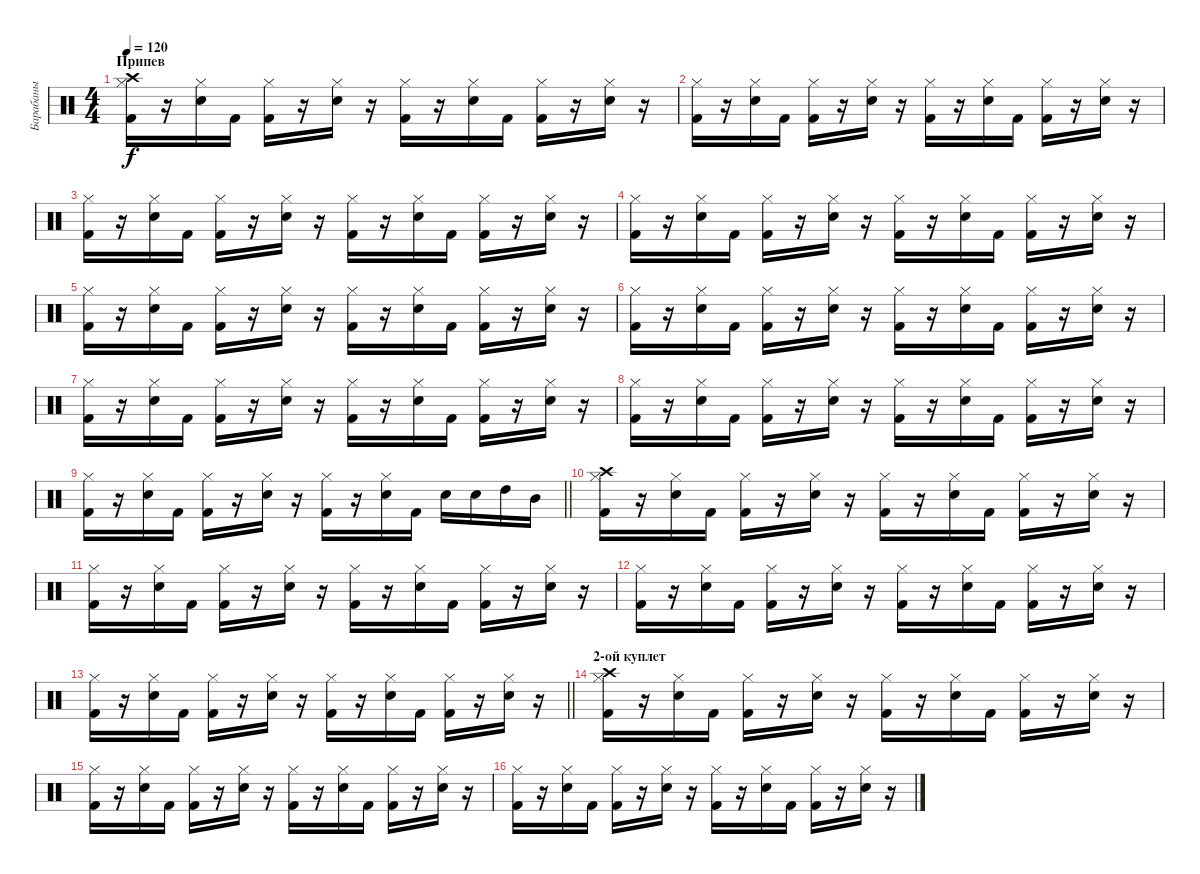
\track ("Барабаны" "Барабаны") {instrument percussion}
\staff {score}
\articulation defaults
\ts (4 4)
\section ("" "Припев")
\tempo 120
\clef neutral
\ks c
("Hi-Hat (closed)" "Kick (hit) 2" "Crash high (hit)").16{dy f} r.16 ("Hi-Hat (closed)" "Electric Snare (hit)").16 "Kick (hit) 2".16 ("Hi-Hat (closed)" "Kick (hit) 2").16 r.16 ("Hi-Hat (closed)" "Electric Snare (hit)").16 r.16 ("Hi-Hat (closed)" "Kick (hit) 2").16 r.16 ("Hi-Hat (closed)" "Electric Snare (hit)").16 "Kick (hit) 2".16 ("Hi-Hat (closed)" "Kick (hit) 2").16 r.16 ("Hi-Hat (closed)" "Electric Snare (hit)").16 r.16 |
("Hi-Hat (closed)" "Kick (hit) 2").16 r.16 ("Hi-Hat (closed)" "Electric Snare (hit)").16 "Kick (hit) 2".16 ("Hi-Hat (closed)" "Kick (hit) 2").16 r.16 ("Hi-Hat (closed)" "Electric Snare (hit)").16 r.16 ("Hi-Hat (closed)" "Kick (hit) 2").16 r.16 ("Hi-Hat (closed)" "Electric Snare (hit)").16 "Kick (hit) 2".16 ("Hi-Hat (closed)" "Kick (hit) 2").16 r.16 ("Hi-Hat (closed)" "Electric Snare (hit)").16 r.16 |
("Hi-Hat (closed)" "Kick (hit) 2").16 r.16 ("Hi-Hat (closed)" "Electric Snare (hit)").16 "Kick (hit) 2".16 ("Hi-Hat (closed)" "Kick (hit) 2").16 r.16 ("Hi-Hat (closed)" "Electric Snare (hit)").16 r.16 ("Hi-Hat (closed)" "Kick (hit) 2").16 r.16 ("Hi-Hat (closed)" "Electric Snare (hit)").16 "Kick (hit) 2".16 ("Hi-Hat (closed)" "Kick (hit) 2").16 r.16 ("Hi-Hat (closed)" "Electric Snare (hit)").16 r.16 |
("Hi-Hat (closed)" "Kick (hit) 2").16 r.16 ("Hi-Hat (closed)" "Electric Snare (hit)").16 "Kick (hit) 2".16 ("Hi-Hat (closed)" "Kick (hit) 2").16 r.16 ("Hi-Hat (closed)" "Electric Snare (hit)").16 r.16 ("Hi-Hat (closed)" "Kick (hit) 2").16 r.16 ("Hi-Hat (closed)" "Electric Snare (hit)").16 "Kick (hit) 2".16 ("Hi-Hat (closed)" "Kick (hit) 2").16 r.16 ("Hi-Hat (closed)" "Electric Snare (hit)").16 r.16 |
("Hi-Hat (closed)" "Kick (hit) 2").16 r.16 ("Hi-Hat (closed)" "Electric Snare (hit)").16 "Kick (hit) 2".16 ("Hi-Hat (closed)" "Kick (hit) 2").16 r.16 ("Hi-Hat (closed)" "Electric Snare (hit)").16 r.16 ("Hi-Hat (closed)" "Kick (hit) 2").16 r.16 ("Hi-Hat (closed)" "Electric Snare (hit)").16 "Kick (hit) 2".16 ("Hi-Hat (closed)" "Kick (hit) 2").16 r.16 ("Hi-Hat (closed)" "Electric Snare (hit)").16 r.16 |
("Hi-Hat (closed)" "Kick (hit) 2").16 r.16 ("Hi-Hat (closed)" "Electric Snare (hit)").16 "Kick (hit) 2".16 ("Hi-Hat (closed)" "Kick (hit) 2").16 r.16 ("Hi-Hat (closed)" "Electric Snare (hit)").16 r.16 ("Hi-Hat (closed)" "Kick (hit) 2").16 r.16 ("Hi-Hat (closed)" "Electric Snare (hit)").16 "Kick (hit) 2".16 ("Hi-Hat (closed)" "Kick (hit) 2").16 r.16 ("Hi-Hat (closed)" "Electric Snare (hit)").16 r.16 |
("Hi-Hat (closed)" "Kick (hit) 2").16 r.16 ("Hi-Hat (closed)" "Electric Snare (hit)").16 "Kick (hit) 2".16 ("Hi-Hat (closed)" "Kick (hit) 2").16 r.16 ("Hi-Hat (closed)" "Electric Snare (hit)").16 r.16 ("Hi-Hat (closed)" "Kick (hit) 2").16 r.16 ("Hi-Hat (closed)" "Electric Snare (hit)").16 "Kick (hit) 2".16 ("Hi-Hat (closed)" "Kick (hit) 2").16 r.16 ("Hi-Hat (closed)" "Electric Snare (hit)").16 r.16 |
("Hi-Hat (closed)" "Kick (hit) 2").16 r.16 ("Hi-Hat (closed)" "Electric Snare (hit)").16 "Kick (hit) 2".16 ("Hi-Hat (closed)" "Kick (hit) 2").16 r.16 ("Hi-Hat (closed)" "Electric Snare (hit)").16 r.16 ("Hi-Hat (closed)" "Kick (hit) 2").16 r.16 ("Hi-Hat (closed)" "Electric Snare (hit)").16 "Kick (hit) 2".16 ("Hi-Hat (closed)" "Kick (hit) 2").16 r.16 ("Hi-Hat (closed)" "Electric Snare (hit)").16 r.16 |
\barLineRight lightlight
("Hi-Hat (closed)" "Kick (hit) 2").16 r.16 ("Hi-Hat (closed)" "Electric Snare (hit)").16 "Kick (hit) 2".16 ("Hi-Hat (closed)" "Kick (hit) 2").16 r.16 ("Hi-Hat (closed)" "Electric Snare (hit)").16 r.16 ("Hi-Hat (closed)" "Kick (hit) 2").16 r.16 ("Hi-Hat (closed)" "Electric Snare (hit)").16 "Kick (hit) 2".16 "Electric Snare (hit)".16 "Electric Snare (hit)".16 "High Tom (hit)".16 "Mid Tom (hit)".16 |
("Hi-Hat (closed)" "Kick (hit) 2" "Crash high (hit)").16 r.16 ("Hi-Hat (closed)" "Electric Snare (hit)").16 "Kick (hit) 2".16 ("Hi-Hat (closed)" "Kick (hit) 2").16 r.16 ("Hi-Hat (closed)" "Electric Snare (hit)").16 r.16 ("Hi-Hat (closed)" "Kick (hit) 2").16 r.16 ("Hi-Hat (closed)" "Electric Snare (hit)").16 "Kick (hit) 2".16 ("Hi-Hat (closed)" "Kick (hit) 2").16 r.16 ("Hi-Hat (closed)" "Electric Snare (hit)").16 r.16 |
("Hi-Hat (closed)" "Kick (hit) 2").16 r.16 ("Hi-Hat (closed)" "Electric Snare (hit)").16 "Kick (hit) 2".16 ("Hi-Hat (closed)" "Kick (hit) 2").16 r.16 ("Hi-Hat (closed)" "Electric Snare (hit)").16 r.16 ("Hi-Hat (closed)" "Kick (hit) 2").16 r.16 ("Hi-Hat (closed)" "Electric Snare (hit)").16 "Kick (hit) 2".16 ("Hi-Hat (closed)" "Kick (hit) 2").16 r.16 ("Hi-Hat (closed)" "Electric Snare (hit)").16 r.16 |
("Hi-Hat (closed)" "Kick (hit) 2").16 r.16 ("Hi-Hat (closed)" "Electric Snare (hit)").16 "Kick (hit) 2".16 ("Hi-Hat (closed)" "Kick (hit) 2").16 r.16 ("Hi-Hat (closed)" "Electric Snare (hit)").16 r.16 ("Hi-Hat (closed)" "Kick (hit) 2").16 r.16 ("Hi-Hat (closed)" "Electric Snare (hit)").16 "Kick (hit) 2".16 ("Hi-Hat (closed)" "Kick (hit) 2").16 r.16 ("Hi-Hat (closed)" "Electric Snare (hit)").16 r.16 |
\barLineRight lightlight
("Hi-Hat (closed)" "Kick (hit) 2").16 r.16 ("Hi-Hat (closed)" "Electric Snare (hit)").16 "Kick (hit) 2".16 ("Hi-Hat (closed)" "Kick (hit) 2").16 r.16 ("Hi-Hat (closed)" "Electric Snare (hit)").16 r.16 ("Hi-Hat (closed)" "Kick (hit) 2").16 r.16 ("Hi-Hat (closed)" "Electric Snare (hit)").16 "Kick (hit) 2".16 ("Hi-Hat (closed)" "Kick (hit) 2").16 r.16 ("Hi-Hat (closed)" "Electric Snare (hit)").16 r.16 |
\section ("" "2-ой куплет")
("Hi-Hat (closed)" "Kick (hit) 2" "Crash high (hit)").16 r.16 ("Hi-Hat (closed)" "Electric Snare (hit)").16 "Kick (hit) 2".16 ("Hi-Hat (closed)" "Kick (hit) 2").16 r.16 ("Hi-Hat (closed)" "Electric Snare (hit)").16 r.16 ("Hi-Hat (closed)" "Kick (hit) 2").16 r.16 ("Hi-Hat (closed)" "Electric Snare (hit)").16 "Kick (hit) 2".16 ("Hi-Hat (closed)" "Kick (hit) 2").16 r.16 ("Hi-Hat (closed)" "Electric Snare (hit)").16 r.16 |
("Hi-Hat (closed)" "Kick (hit) 2").16 r.16 ("Hi-Hat (closed)" "Electric Snare (hit)").16 "Kick (hit) 2".16 ("Hi-Hat (closed)" "Kick (hit) 2").16 r.16 ("Hi-Hat (closed)" "Electric Snare (hit)").16 r.16 ("Hi-Hat (closed)" "Kick (hit) 2").16 r.16 ("Hi-Hat (closed)" "Electric Snare (hit)").16 "Kick (hit) 2".16 ("Hi-Hat (closed)" "Kick (hit) 2").16 r.16 ("Hi-Hat (closed)" "Electric Snare (hit)").16 r.16 |
("Hi-Hat (closed)" "Kick (hit) 2").16 r.16 ("Hi-Hat (closed)" "Electric Snare (hit)").16 "Kick (hit) 2".16 ("Hi-Hat (closed)" "Kick (hit) 2").16 r.16 ("Hi-Hat (closed)" "Electric Snare (hit)").16 r.16 ("Hi-Hat (closed)" "Kick (hit) 2").16 r.16 ("Hi-Hat (closed)" "Electric Snare (hit)").16 "Kick (hit) 2".16 ("Hi-Hat (closed)" "Kick (hit) 2").16 r.16 ("Hi-Hat (closed)" "Electric Snare (hit)").16 r.16
